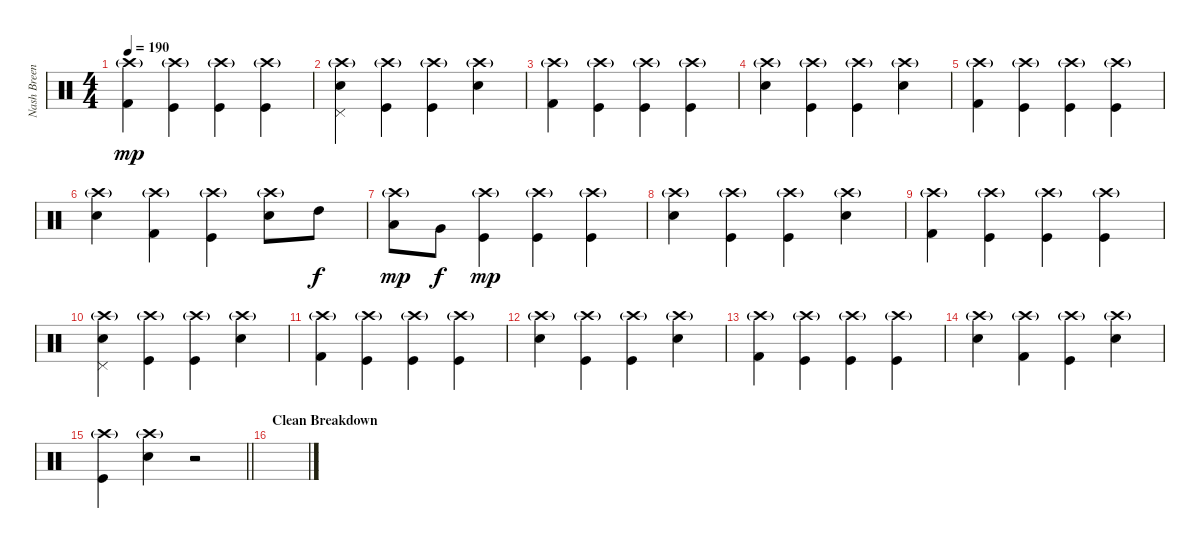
\track ("Nash Breen (Percussion)" "Nash Breen") {instrument percussion}
\staff {score}
\articulation defaults
\ts (4 4)
\tempo 190
\clef neutral
\ks c
("Kick (hit) 2" "Crash high (hit)"{g}).4{dy mp} ("Kick (hit)" "Crash high (hit)"{g}).4 ("Kick (hit)" "Crash high (hit)"{g}).4 ("Kick (hit)" "Crash high (hit)"{g}).4 |
("Snare (hit) 2" "Pedal Hi-Hat (hit)" "Crash high (hit)"{g}).4 ("Kick (hit)" "Crash high (hit)"{g}).4 ("Kick (hit)" "Crash high (hit)"{g}).4 ("Snare (hit) 2" "Crash high (hit)"{g}).4 |
("Kick (hit) 2" "Crash high (hit)"{g}).4 ("Kick (hit)" "Crash high (hit)"{g}).4 ("Kick (hit)" "Crash high (hit)"{g}).4 ("Kick (hit)" "Crash high (hit)"{g}).4 |
("Snare (hit) 2" "Crash high (hit)"{g}).4 ("Kick (hit)" "Crash high (hit)"{g}).4 ("Kick (hit)" "Crash high (hit)"{g}).4 ("Snare (hit) 2" "Crash high (hit)"{g}).4 |
("Kick (hit) 2" "Crash high (hit)"{g}).4 ("Kick (hit)" "Crash high (hit)"{g}).4 ("Kick (hit)" "Crash high (hit)"{g}).4 ("Kick (hit)" "Crash high (hit)"{g}).4 |
("Snare (hit) 2" "Crash high (hit)"{g}).4 ("Kick (hit) 2" "Crash high (hit)"{g}).4 ("Kick (hit)" "Crash high (hit)"{g}).4 ("Snare (hit) 2" "Crash high (hit)"{g}).8 "High Tom (hit)".8{dy f} |
("Low Tom (hit)" "Crash high (hit)"{g}).8{dy mp} "Very Low Tom (hit)".8{dy f} ("Kick (hit)" "Crash high (hit)"{g}).4{dy mp} ("Kick (hit)" "Crash high (hit)"{g}).4 ("Kick (hit)" "Crash high (hit)"{g}).4 |
("Snare (hit) 2" "Crash high (hit)"{g}).4 ("Kick (hit)" "Crash high (hit)"{g}).4 ("Kick (hit)" "Crash high (hit)"{g}).4 ("Snare (hit) 2" "Crash high (hit)"{g}).4 |
("Kick (hit) 2" "Crash high (hit)"{g}).4 ("Kick (hit)" "Crash high (hit)"{g}).4 ("Kick (hit)" "Crash high (hit)"{g}).4 ("Kick (hit)" "Crash high (hit)"{g}).4 |
("Snare (hit) 2" "Pedal Hi-Hat (hit)" "Crash high (hit)"{g}).4 ("Kick (hit)" "Crash high (hit)"{g}).4 ("Kick (hit)" "Crash high (hit)"{g}).4 ("Snare (hit) 2" "Crash high (hit)"{g}).4 |
("Kick (hit) 2" "Crash high (hit)"{g}).4 ("Kick (hit)" "Crash high (hit)"{g}).4 ("Kick (hit)" "Crash high (hit)"{g}).4 ("Kick (hit)" "Crash high (hit)"{g}).4 |
("Snare (hit) 2" "Crash high (hit)"{g}).4 ("Kick (hit)" "Crash high (hit)"{g}).4 ("Kick (hit)" "Crash high (hit)"{g}).4 ("Snare (hit) 2" "Crash high (hit)"{g}).4 |
("Kick (hit) 2" "Crash high (hit)"{g}).4 ("Kick (hit)" "Crash high (hit)"{g}).4 ("Kick (hit)" "Crash high (hit)"{g}).4 ("Kick (hit)" "Crash high (hit)"{g}).4 |
("Snare (hit) 2" "Crash high (hit)"{g}).4 ("Kick (hit) 2" "Crash high (hit)"{g}).4 ("Kick (hit)" "Crash high (hit)"{g}).4 ("Snare (hit) 2" "Crash high (hit)"{g}).4 |
\barLineRight lightlight
("Kick (hit)" "Crash high (hit)"{g}).4 ("Electric Snare (hit)" "Crash high (hit)"{g}).4 r.2 |
\section ("" "Clean Breakdown")
